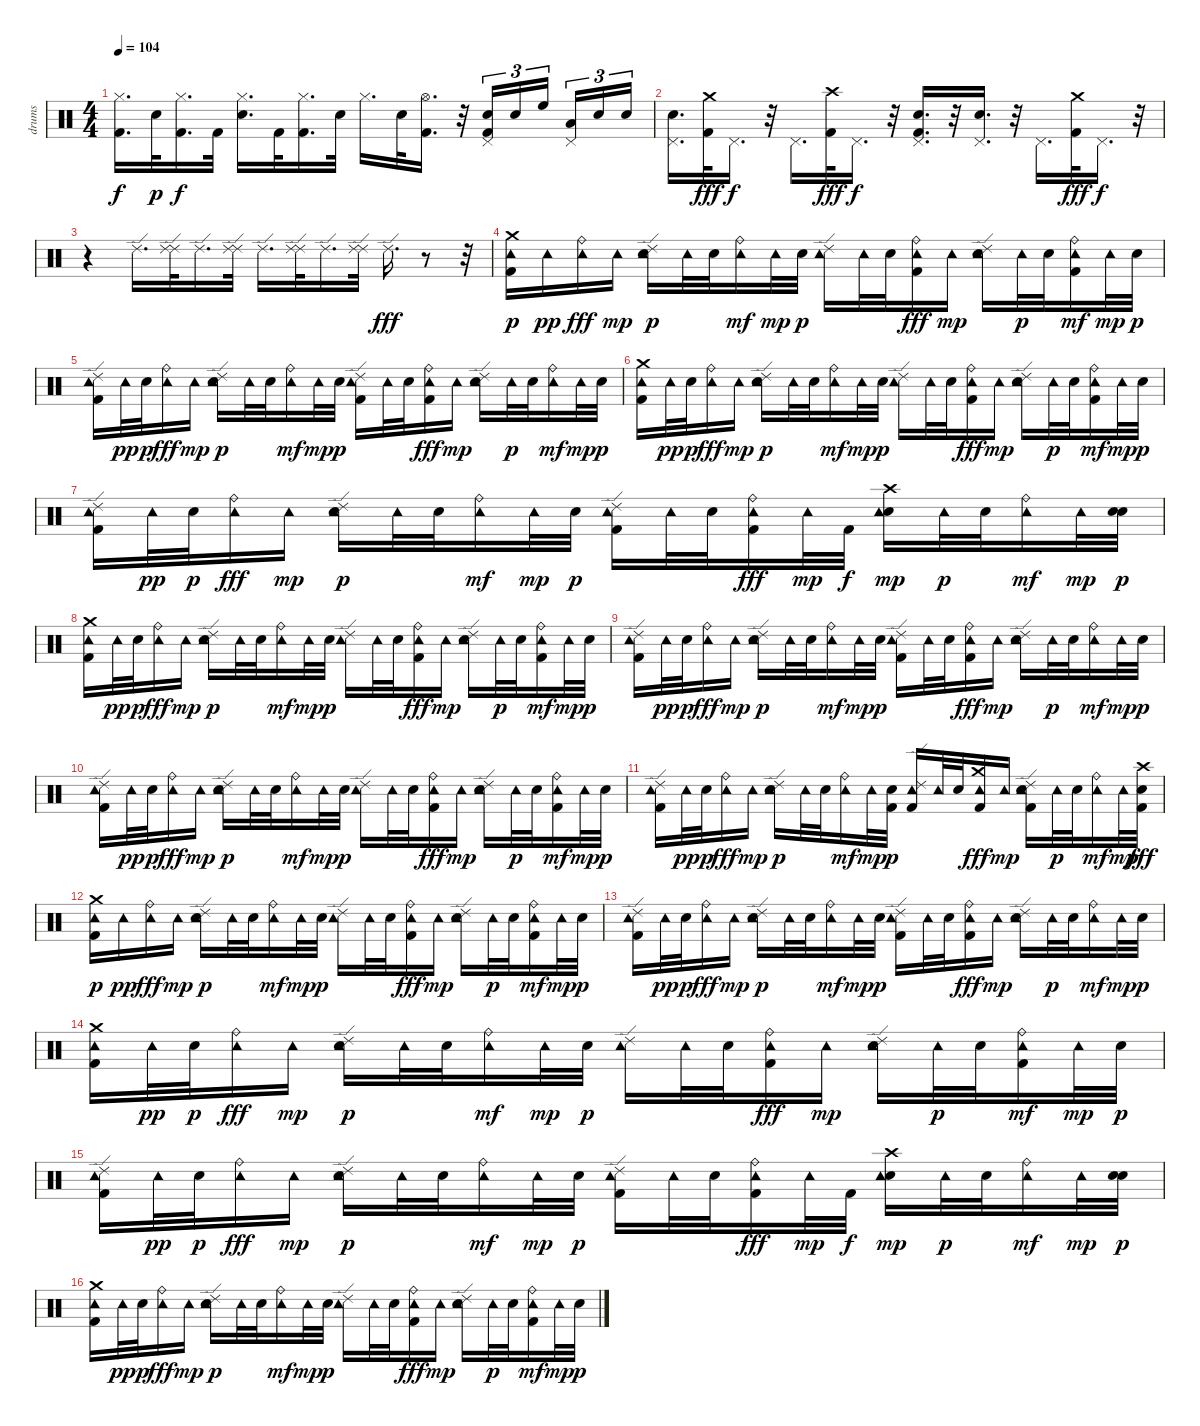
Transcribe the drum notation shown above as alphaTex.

\track ("drums" "drums") {instrument percussion}
\staff {score}
\articulation defaults
\ts (4 4)
\tempo 104
\clef neutral
\ks c
("Kick (hit) 2" "Hi-Hat (closed)").16{d dy f} "Electric Snare (hit)".32{dy p} ("Kick (hit) 2" "Hi-Hat (closed)").16{d dy f} "Kick (hit) 2".32 ("Electric Snare (hit)" "Hi-Hat (closed)").16{d} "Kick (hit) 2".32 ("Kick (hit) 2" "Hi-Hat (closed)").16{d} "Electric Snare (hit)".32 "Hi-Hat (closed)".16{d} "Electric Snare (hit)".32 ("Kick (hit) 2" "Hi-Hat (open)").16{d} r.32 ("Electric Snare (hit)" "Kick (hit) 2" "Pedal Hi-Hat (hit)").16{tu (3 2)} "Electric Snare (hit)".16{tu (3 2)} "High Floor Tom (hit)".16{tu (3 2) beam splitsecondary} ("Low Tom (hit)" "Pedal Hi-Hat (hit)").16{tu (3 2)} "Electric Snare (hit)".16{tu (3 2)} "Electric Snare (hit)".16{tu (3 2)} |
("Electric Snare (hit)" "Pedal Hi-Hat (hit)").16{d} ("Kick (hit) 2" "Crash medium (hit)").32{dy fff} "Pedal Hi-Hat (hit)".16{d dy f} r.32 "Pedal Hi-Hat (hit)".16{d} ("Kick (hit) 2" "Crash high (hit)").32{dy fff} "Pedal Hi-Hat (hit)".16{d dy f} r.32 ("Electric Snare (hit)" "Kick (hit) 2" "Pedal Hi-Hat (hit)").16{d} r.32 ("Electric Snare (hit)" "Pedal Hi-Hat (hit)").16{d} r.32 "Pedal Hi-Hat (hit)".16{d} ("Kick (hit) 2" "Crash medium (hit)").32{dy fff} "Pedal Hi-Hat (hit)".16{d dy f} r.32 |
r.4 "Ride (edge) 2".16{d} ("Ride (edge) 2" "Ride (edge) 2").32 "Ride (edge) 2".16{d} ("Ride (edge) 2" "Ride (edge) 2").32 "Ride (edge) 2".16{d} ("Ride (edge) 2" "Ride (edge) 2").32 "Ride (edge) 2".16{d} ("Ride (edge) 2" "Ride (edge) 2").32 "Ride (edge) 2".16{d dy fff} r.8 r.32 |
("Kick (hit) 2" "Crash medium (hit)" "Tambourine (hit)").16{dy p} "Tambourine (hit)".16{dy pp} ("Ride (bell)" "Tambourine (hit)").16{dy fff} "Tambourine (hit)".16{dy mp} ("Electric Snare (hit)" "Ride (edge) 2" "Tambourine (hit)").16{dy p} "Tambourine (hit)".32 "Electric Snare (hit)".32 ("Ride (bell)" "Tambourine (hit)").16{dy mf} "Tambourine (hit)".32{dy mp} "Electric Snare (hit)".32{dy p} ("Ride (edge) 2" "Tambourine (hit)").16 "Tambourine (hit)".32 "Electric Snare (hit)".32 ("Kick (hit) 2" "Ride (bell)" "Tambourine (hit)").16{dy fff} "Tambourine (hit)".16{dy mp} ("Electric Snare (hit)" "Ride (edge) 2" "Tambourine (hit)").16 "Tambourine (hit)".32{dy p} "Electric Snare (hit)".32 ("Kick (hit) 2" "Ride (bell)" "Tambourine (hit)").16{dy mf} "Tambourine (hit)".32{dy mp} "Electric Snare (hit)".32{dy p} |
("Kick (hit) 2" "Ride (edge) 2" "Tambourine (hit)").16 "Tambourine (hit)".32{dy pp} "Electric Snare (hit)".32{dy p} ("Ride (bell)" "Tambourine (hit)").16{dy fff} "Tambourine (hit)".16{dy mp} ("Electric Snare (hit)" "Ride (edge) 2" "Tambourine (hit)").16{dy p} "Tambourine (hit)".32 "Electric Snare (hit)".32 ("Ride (bell)" "Tambourine (hit)").16{dy mf} "Tambourine (hit)".32{dy mp} "Electric Snare (hit)".32{dy p} ("Kick (hit) 2" "Ride (edge) 2" "Tambourine (hit)").16 "Tambourine (hit)".32 "Electric Snare (hit)".32 ("Kick (hit) 2" "Ride (bell)" "Tambourine (hit)").16{dy fff} "Tambourine (hit)".16{dy mp} ("Electric Snare (hit)" "Ride (edge) 2" "Tambourine (hit)").16 "Tambourine (hit)".32{dy p} "Electric Snare (hit)".32 ("Ride (bell)" "Tambourine (hit)").16{dy mf} "Tambourine (hit)".32{dy mp} "Electric Snare (hit)".32{dy p} |
("Kick (hit) 2" "Crash medium (hit)" "Tambourine (hit)").16 "Tambourine (hit)".32{dy pp} "Electric Snare (hit)".32{dy p} ("Ride (bell)" "Tambourine (hit)").16{dy fff} "Tambourine (hit)".16{dy mp} ("Electric Snare (hit)" "Ride (edge) 2" "Tambourine (hit)").16{dy p} "Tambourine (hit)".32 "Electric Snare (hit)".32 ("Ride (bell)" "Tambourine (hit)").16{dy mf} "Tambourine (hit)".32{dy mp} "Electric Snare (hit)".32{dy p} ("Ride (edge) 2" "Tambourine (hit)").16 "Tambourine (hit)".32 "Electric Snare (hit)".32 ("Kick (hit) 2" "Ride (bell)" "Tambourine (hit)").16{dy fff} "Tambourine (hit)".16{dy mp} ("Electric Snare (hit)" "Ride (edge) 2" "Tambourine (hit)").16 "Tambourine (hit)".32{dy p} "Electric Snare (hit)".32 ("Kick (hit) 2" "Ride (bell)" "Tambourine (hit)").16{dy mf} "Tambourine (hit)".32{dy mp} "Electric Snare (hit)".32{dy p} |
("Kick (hit) 2" "Ride (edge) 2" "Tambourine (hit)").16 "Tambourine (hit)".32{dy pp} "Electric Snare (hit)".32{dy p} ("Ride (bell)" "Tambourine (hit)").16{dy fff} "Tambourine (hit)".16{dy mp} ("Electric Snare (hit)" "Ride (edge) 2" "Tambourine (hit)").16{dy p} "Tambourine (hit)".32 "Electric Snare (hit)".32 ("Ride (bell)" "Tambourine (hit)").16{dy mf} "Tambourine (hit)".32{dy mp} "Electric Snare (hit)".32{dy p} ("Kick (hit) 2" "Ride (edge) 2" "Tambourine (hit)").16 "Tambourine (hit)".32 "Electric Snare (hit)".32 ("Kick (hit) 2" "Ride (bell)" "Tambourine (hit)").16{dy fff} "Tambourine (hit)".32{dy mp} "Kick (hit) 2".32{dy f} ("Electric Snare (hit)" "Crash high (hit)" "Tambourine (hit)").16{dy mp} "Tambourine (hit)".32{dy p} "Electric Snare (hit)".32 ("Ride (bell)" "Tambourine (hit)").16{dy mf} "Tambourine (hit)".32{dy mp} ("Electric Snare (hit)" "Electric Snare (hit)").32{dy p} |
("Kick (hit) 2" "Crash medium (hit)" "Tambourine (hit)").16 "Tambourine (hit)".32{dy pp} "Electric Snare (hit)".32{dy p} ("Ride (bell)" "Tambourine (hit)").16{dy fff} "Tambourine (hit)".16{dy mp} ("Electric Snare (hit)" "Ride (edge) 2" "Tambourine (hit)").16{dy p} "Tambourine (hit)".32 "Electric Snare (hit)".32 ("Ride (bell)" "Tambourine (hit)").16{dy mf} "Tambourine (hit)".32{dy mp} "Electric Snare (hit)".32{dy p} ("Ride (edge) 2" "Tambourine (hit)").16 "Tambourine (hit)".32 "Electric Snare (hit)".32 ("Kick (hit) 2" "Ride (bell)" "Tambourine (hit)").16{dy fff} "Tambourine (hit)".16{dy mp} ("Electric Snare (hit)" "Ride (edge) 2" "Tambourine (hit)").16 "Tambourine (hit)".32{dy p} "Electric Snare (hit)".32 ("Kick (hit) 2" "Ride (bell)" "Tambourine (hit)").16{dy mf} "Tambourine (hit)".32{dy mp} "Electric Snare (hit)".32{dy p} |
("Kick (hit) 2" "Ride (edge) 2" "Tambourine (hit)").16 "Tambourine (hit)".32{dy pp} "Electric Snare (hit)".32{dy p} ("Ride (bell)" "Tambourine (hit)").16{dy fff} "Tambourine (hit)".16{dy mp} ("Electric Snare (hit)" "Ride (edge) 2" "Tambourine (hit)").16{dy p} "Tambourine (hit)".32 "Electric Snare (hit)".32 ("Ride (bell)" "Tambourine (hit)").16{dy mf} "Tambourine (hit)".32{dy mp} "Electric Snare (hit)".32{dy p} ("Kick (hit) 2" "Ride (edge) 2" "Tambourine (hit)").16 "Tambourine (hit)".32 "Electric Snare (hit)".32 ("Kick (hit) 2" "Ride (bell)" "Tambourine (hit)").16{dy fff} "Tambourine (hit)".16{dy mp} ("Electric Snare (hit)" "Ride (edge) 2" "Tambourine (hit)").16 "Tambourine (hit)".32{dy p} "Electric Snare (hit)".32 ("Ride (bell)" "Tambourine (hit)").16{dy mf} "Tambourine (hit)".32{dy mp} "Electric Snare (hit)".32{dy p} |
("Kick (hit) 2" "Ride (edge) 2" "Tambourine (hit)").16 "Tambourine (hit)".32{dy pp} "Electric Snare (hit)".32{dy p} ("Ride (bell)" "Tambourine (hit)").16{dy fff} "Tambourine (hit)".16{dy mp} ("Electric Snare (hit)" "Ride (edge) 2" "Tambourine (hit)").16{dy p} "Tambourine (hit)".32 "Electric Snare (hit)".32 ("Ride (bell)" "Tambourine (hit)").16{dy mf} "Tambourine (hit)".32{dy mp} "Electric Snare (hit)".32{dy p} ("Ride (edge) 2" "Tambourine (hit)").16 "Tambourine (hit)".32 "Electric Snare (hit)".32 ("Kick (hit) 2" "Ride (bell)" "Tambourine (hit)").16{dy fff} "Tambourine (hit)".16{dy mp} ("Electric Snare (hit)" "Ride (edge) 2" "Tambourine (hit)").16 "Tambourine (hit)".32{dy p} "Electric Snare (hit)".32 ("Kick (hit) 2" "Ride (bell)" "Tambourine (hit)").16{dy mf} "Tambourine (hit)".32{dy mp} "Electric Snare (hit)".32{dy p} |
("Kick (hit) 2" "Ride (edge) 2" "Tambourine (hit)").16 "Tambourine (hit)".32{dy pp} "Electric Snare (hit)".32{dy p} ("Ride (bell)" "Tambourine (hit)").16{dy fff} "Tambourine (hit)".16{dy mp} ("Electric Snare (hit)" "Ride (edge) 2" "Tambourine (hit)").16{dy p} "Tambourine (hit)".32 "Electric Snare (hit)".32 ("Ride (bell)" "Tambourine (hit)").16{dy mf} "Tambourine (hit)".32{dy mp} ("Kick (hit) 2" "Electric Snare (hit)").32{dy p} ("Kick (hit) 2" "Ride (edge) 2" "Tambourine (hit)").16 "Tambourine (hit)".32 "Electric Snare (hit)".32 ("Kick (hit) 2" "Crash medium (hit)" "Tambourine (hit)").16{dy fff} "Tambourine (hit)".16{dy mp} ("Electric Snare (hit)" "Kick (hit) 2" "Ride (edge) 2" "Tambourine (hit)").16 "Tambourine (hit)".32{dy p} "Electric Snare (hit)".32 ("Ride (bell)" "Tambourine (hit)").16{dy mf} "Tambourine (hit)".32{dy mp} ("Kick (hit) 2" "Electric Snare (hit)" "Crash high (hit)").32{dy fff} |
("Kick (hit) 2" "Crash medium (hit)" "Tambourine (hit)").16{dy p} "Tambourine (hit)".16{dy pp} ("Ride (bell)" "Tambourine (hit)").16{dy fff} "Tambourine (hit)".16{dy mp} ("Electric Snare (hit)" "Ride (edge) 2" "Tambourine (hit)").16{dy p} "Tambourine (hit)".32 "Electric Snare (hit)".32 ("Ride (bell)" "Tambourine (hit)").16{dy mf} "Tambourine (hit)".32{dy mp} "Electric Snare (hit)".32{dy p} ("Ride (edge) 2" "Tambourine (hit)").16 "Tambourine (hit)".32 "Electric Snare (hit)".32 ("Kick (hit) 2" "Ride (bell)" "Tambourine (hit)").16{dy fff} "Tambourine (hit)".16{dy mp} ("Electric Snare (hit)" "Ride (edge) 2" "Tambourine (hit)").16 "Tambourine (hit)".32{dy p} "Electric Snare (hit)".32 ("Kick (hit) 2" "Ride (bell)" "Tambourine (hit)").16{dy mf} "Tambourine (hit)".32{dy mp} "Electric Snare (hit)".32{dy p} |
("Kick (hit) 2" "Ride (edge) 2" "Tambourine (hit)").16 "Tambourine (hit)".32{dy pp} "Electric Snare (hit)".32{dy p} ("Ride (bell)" "Tambourine (hit)").16{dy fff} "Tambourine (hit)".16{dy mp} ("Electric Snare (hit)" "Ride (edge) 2" "Tambourine (hit)").16{dy p} "Tambourine (hit)".32 "Electric Snare (hit)".32 ("Ride (bell)" "Tambourine (hit)").16{dy mf} "Tambourine (hit)".32{dy mp} "Electric Snare (hit)".32{dy p} ("Kick (hit) 2" "Ride (edge) 2" "Tambourine (hit)").16 "Tambourine (hit)".32 "Electric Snare (hit)".32 ("Kick (hit) 2" "Ride (bell)" "Tambourine (hit)").16{dy fff} "Tambourine (hit)".16{dy mp} ("Electric Snare (hit)" "Ride (edge) 2" "Tambourine (hit)").16 "Tambourine (hit)".32{dy p} "Electric Snare (hit)".32 ("Ride (bell)" "Tambourine (hit)").16{dy mf} "Tambourine (hit)".32{dy mp} "Electric Snare (hit)".32{dy p} |
("Kick (hit) 2" "Crash medium (hit)" "Tambourine (hit)").16 "Tambourine (hit)".32{dy pp} "Electric Snare (hit)".32{dy p} ("Ride (bell)" "Tambourine (hit)").16{dy fff} "Tambourine (hit)".16{dy mp} ("Electric Snare (hit)" "Ride (edge) 2" "Tambourine (hit)").16{dy p} "Tambourine (hit)".32 "Electric Snare (hit)".32 ("Ride (bell)" "Tambourine (hit)").16{dy mf} "Tambourine (hit)".32{dy mp} "Electric Snare (hit)".32{dy p} ("Ride (edge) 2" "Tambourine (hit)").16 "Tambourine (hit)".32 "Electric Snare (hit)".32 ("Kick (hit) 2" "Ride (bell)" "Tambourine (hit)").16{dy fff} "Tambourine (hit)".16{dy mp} ("Electric Snare (hit)" "Ride (edge) 2" "Tambourine (hit)").16 "Tambourine (hit)".32{dy p} "Electric Snare (hit)".32 ("Kick (hit) 2" "Ride (bell)" "Tambourine (hit)").16{dy mf} "Tambourine (hit)".32{dy mp} "Electric Snare (hit)".32{dy p} |
("Kick (hit) 2" "Ride (edge) 2" "Tambourine (hit)").16 "Tambourine (hit)".32{dy pp} "Electric Snare (hit)".32{dy p} ("Ride (bell)" "Tambourine (hit)").16{dy fff} "Tambourine (hit)".16{dy mp} ("Electric Snare (hit)" "Ride (edge) 2" "Tambourine (hit)").16{dy p} "Tambourine (hit)".32 "Electric Snare (hit)".32 ("Ride (bell)" "Tambourine (hit)").16{dy mf} "Tambourine (hit)".32{dy mp} "Electric Snare (hit)".32{dy p} ("Kick (hit) 2" "Ride (edge) 2" "Tambourine (hit)").16 "Tambourine (hit)".32 "Electric Snare (hit)".32 ("Kick (hit) 2" "Ride (bell)" "Tambourine (hit)").16{dy fff} "Tambourine (hit)".32{dy mp} "Kick (hit) 2".32{dy f} ("Electric Snare (hit)" "Crash high (hit)" "Tambourine (hit)").16{dy mp} "Tambourine (hit)".32{dy p} "Electric Snare (hit)".32 ("Ride (bell)" "Tambourine (hit)").16{dy mf} "Tambourine (hit)".32{dy mp} ("Electric Snare (hit)" "Electric Snare (hit)").32{dy p} |
("Kick (hit) 2" "Crash medium (hit)" "Tambourine (hit)").16 "Tambourine (hit)".32{dy pp} "Electric Snare (hit)".32{dy p} ("Ride (bell)" "Tambourine (hit)").16{dy fff} "Tambourine (hit)".16{dy mp} ("Electric Snare (hit)" "Ride (edge) 2" "Tambourine (hit)").16{dy p} "Tambourine (hit)".32 "Electric Snare (hit)".32 ("Ride (bell)" "Tambourine (hit)").16{dy mf} "Tambourine (hit)".32{dy mp} "Electric Snare (hit)".32{dy p} ("Ride (edge) 2" "Tambourine (hit)").16 "Tambourine (hit)".32 "Electric Snare (hit)".32 ("Kick (hit) 2" "Ride (bell)" "Tambourine (hit)").16{dy fff} "Tambourine (hit)".16{dy mp} ("Electric Snare (hit)" "Ride (edge) 2" "Tambourine (hit)").16 "Tambourine (hit)".32{dy p} "Electric Snare (hit)".32 ("Kick (hit) 2" "Ride (bell)" "Tambourine (hit)").16{dy mf} "Tambourine (hit)".32{dy mp} "Electric Snare (hit)".32{dy p}
